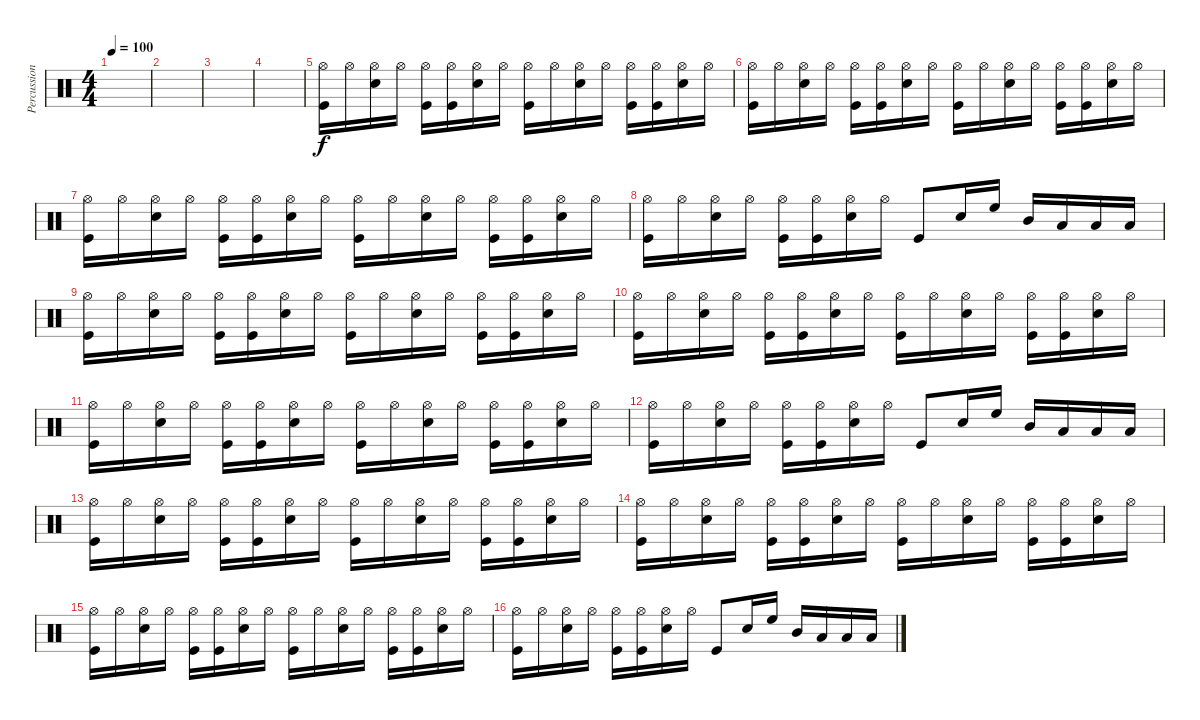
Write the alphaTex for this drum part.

\track ("Percussions" "Percussion") {instrument percussion}
\staff {score}
\articulation defaults
\ts (4 4)
\tempo 100
\clef neutral
\ks c
|
|
|
|
("Hi-Hat (open)" "Kick (hit)").16 "Hi-Hat (open)".16 ("Hi-Hat (open)" "Snare (hit) 2").16 "Hi-Hat (open)".16 ("Hi-Hat (open)" "Kick (hit)").16 ("Hi-Hat (open)" "Kick (hit)").16 ("Hi-Hat (open)" "Snare (hit) 2").16 "Hi-Hat (open)".16 ("Hi-Hat (open)" "Kick (hit)").16 "Hi-Hat (open)".16 ("Hi-Hat (open)" "Snare (hit) 2").16 "Hi-Hat (open)".16 ("Hi-Hat (open)" "Kick (hit)").16 ("Hi-Hat (open)" "Kick (hit)").16 ("Hi-Hat (open)" "Snare (hit) 2").16 "Hi-Hat (open)".16 |
("Hi-Hat (open)" "Kick (hit)").16 "Hi-Hat (open)".16 ("Hi-Hat (open)" "Snare (hit) 2").16 "Hi-Hat (open)".16 ("Hi-Hat (open)" "Kick (hit)").16 ("Hi-Hat (open)" "Kick (hit)").16 ("Hi-Hat (open)" "Snare (hit) 2").16 "Hi-Hat (open)".16 ("Hi-Hat (open)" "Kick (hit)").16 "Hi-Hat (open)".16 ("Hi-Hat (open)" "Snare (hit) 2").16 "Hi-Hat (open)".16 ("Hi-Hat (open)" "Kick (hit)").16 ("Hi-Hat (open)" "Kick (hit)").16 ("Hi-Hat (open)" "Snare (hit) 2").16 "Hi-Hat (open)".16 |
("Hi-Hat (open)" "Kick (hit)").16 "Hi-Hat (open)".16 ("Hi-Hat (open)" "Snare (hit) 2").16 "Hi-Hat (open)".16 ("Hi-Hat (open)" "Kick (hit)").16 ("Hi-Hat (open)" "Kick (hit)").16 ("Hi-Hat (open)" "Snare (hit) 2").16 "Hi-Hat (open)".16 ("Hi-Hat (open)" "Kick (hit)").16 "Hi-Hat (open)".16 ("Hi-Hat (open)" "Snare (hit) 2").16 "Hi-Hat (open)".16 ("Hi-Hat (open)" "Kick (hit)").16 ("Hi-Hat (open)" "Kick (hit)").16 ("Hi-Hat (open)" "Snare (hit) 2").16 "Hi-Hat (open)".16 |
("Hi-Hat (open)" "Kick (hit)").16 "Hi-Hat (open)".16 ("Hi-Hat (open)" "Snare (hit) 2").16 "Hi-Hat (open)".16 ("Hi-Hat (open)" "Kick (hit)").16 ("Hi-Hat (open)" "Kick (hit)").16 ("Hi-Hat (open)" "Snare (hit) 2").16 "Hi-Hat (open)".16 "Kick (hit)".8 "Snare (hit) 2".16 "High Floor Tom (hit)".16 "Mid Tom (hit)".16 "Low Tom (hit)".16 "Low Floor Tom (hit)".16 "Low Tom (hit)".16 |
("Hi-Hat (open)" "Kick (hit)").16 "Hi-Hat (open)".16 ("Hi-Hat (open)" "Snare (hit) 2").16 "Hi-Hat (open)".16 ("Hi-Hat (open)" "Kick (hit)").16 ("Hi-Hat (open)" "Kick (hit)").16 ("Hi-Hat (open)" "Snare (hit) 2").16 "Hi-Hat (open)".16 ("Hi-Hat (open)" "Kick (hit)").16 "Hi-Hat (open)".16 ("Hi-Hat (open)" "Snare (hit) 2").16 "Hi-Hat (open)".16 ("Hi-Hat (open)" "Kick (hit)").16 ("Hi-Hat (open)" "Kick (hit)").16 ("Hi-Hat (open)" "Snare (hit) 2").16 "Hi-Hat (open)".16 |
("Hi-Hat (open)" "Kick (hit)").16 "Hi-Hat (open)".16 ("Hi-Hat (open)" "Snare (hit) 2").16 "Hi-Hat (open)".16 ("Hi-Hat (open)" "Kick (hit)").16 ("Hi-Hat (open)" "Kick (hit)").16 ("Hi-Hat (open)" "Snare (hit) 2").16 "Hi-Hat (open)".16 ("Hi-Hat (open)" "Kick (hit)").16 "Hi-Hat (open)".16 ("Hi-Hat (open)" "Snare (hit) 2").16 "Hi-Hat (open)".16 ("Hi-Hat (open)" "Kick (hit)").16 ("Hi-Hat (open)" "Kick (hit)").16 ("Hi-Hat (open)" "Snare (hit) 2").16 "Hi-Hat (open)".16 |
("Hi-Hat (open)" "Kick (hit)").16 "Hi-Hat (open)".16 ("Hi-Hat (open)" "Snare (hit) 2").16 "Hi-Hat (open)".16 ("Hi-Hat (open)" "Kick (hit)").16 ("Hi-Hat (open)" "Kick (hit)").16 ("Hi-Hat (open)" "Snare (hit) 2").16 "Hi-Hat (open)".16 ("Hi-Hat (open)" "Kick (hit)").16 "Hi-Hat (open)".16 ("Hi-Hat (open)" "Snare (hit) 2").16 "Hi-Hat (open)".16 ("Hi-Hat (open)" "Kick (hit)").16 ("Hi-Hat (open)" "Kick (hit)").16 ("Hi-Hat (open)" "Snare (hit) 2").16 "Hi-Hat (open)".16 |
("Hi-Hat (open)" "Kick (hit)").16 "Hi-Hat (open)".16 ("Hi-Hat (open)" "Snare (hit) 2").16 "Hi-Hat (open)".16 ("Hi-Hat (open)" "Kick (hit)").16 ("Hi-Hat (open)" "Kick (hit)").16 ("Hi-Hat (open)" "Snare (hit) 2").16 "Hi-Hat (open)".16 "Kick (hit)".8 "Snare (hit) 2".16 "High Floor Tom (hit)".16 "Mid Tom (hit)".16 "Low Tom (hit)".16 "Low Floor Tom (hit)".16 "Low Tom (hit)".16 |
("Hi-Hat (open)" "Kick (hit)").16 "Hi-Hat (open)".16 ("Hi-Hat (open)" "Snare (hit) 2").16 "Hi-Hat (open)".16 ("Hi-Hat (open)" "Kick (hit)").16 ("Hi-Hat (open)" "Kick (hit)").16 ("Hi-Hat (open)" "Snare (hit) 2").16 "Hi-Hat (open)".16 ("Hi-Hat (open)" "Kick (hit)").16 "Hi-Hat (open)".16 ("Hi-Hat (open)" "Snare (hit) 2").16 "Hi-Hat (open)".16 ("Hi-Hat (open)" "Kick (hit)").16 ("Hi-Hat (open)" "Kick (hit)").16 ("Hi-Hat (open)" "Snare (hit) 2").16 "Hi-Hat (open)".16 |
("Hi-Hat (open)" "Kick (hit)").16 "Hi-Hat (open)".16 ("Hi-Hat (open)" "Snare (hit) 2").16 "Hi-Hat (open)".16 ("Hi-Hat (open)" "Kick (hit)").16 ("Hi-Hat (open)" "Kick (hit)").16 ("Hi-Hat (open)" "Snare (hit) 2").16 "Hi-Hat (open)".16 ("Hi-Hat (open)" "Kick (hit)").16 "Hi-Hat (open)".16 ("Hi-Hat (open)" "Snare (hit) 2").16 "Hi-Hat (open)".16 ("Hi-Hat (open)" "Kick (hit)").16 ("Hi-Hat (open)" "Kick (hit)").16 ("Hi-Hat (open)" "Snare (hit) 2").16 "Hi-Hat (open)".16 |
("Hi-Hat (open)" "Kick (hit)").16 "Hi-Hat (open)".16 ("Hi-Hat (open)" "Snare (hit) 2").16 "Hi-Hat (open)".16 ("Hi-Hat (open)" "Kick (hit)").16 ("Hi-Hat (open)" "Kick (hit)").16 ("Hi-Hat (open)" "Snare (hit) 2").16 "Hi-Hat (open)".16 ("Hi-Hat (open)" "Kick (hit)").16 "Hi-Hat (open)".16 ("Hi-Hat (open)" "Snare (hit) 2").16 "Hi-Hat (open)".16 ("Hi-Hat (open)" "Kick (hit)").16 ("Hi-Hat (open)" "Kick (hit)").16 ("Hi-Hat (open)" "Snare (hit) 2").16 "Hi-Hat (open)".16 |
("Hi-Hat (open)" "Kick (hit)").16 "Hi-Hat (open)".16 ("Hi-Hat (open)" "Snare (hit) 2").16 "Hi-Hat (open)".16 ("Hi-Hat (open)" "Kick (hit)").16 ("Hi-Hat (open)" "Kick (hit)").16 ("Hi-Hat (open)" "Snare (hit) 2").16 "Hi-Hat (open)".16 "Kick (hit)".8 "Snare (hit) 2".16 "High Floor Tom (hit)".16 "Mid Tom (hit)".16 "Low Tom (hit)".16 "Low Floor Tom (hit)".16 "Low Tom (hit)".16
